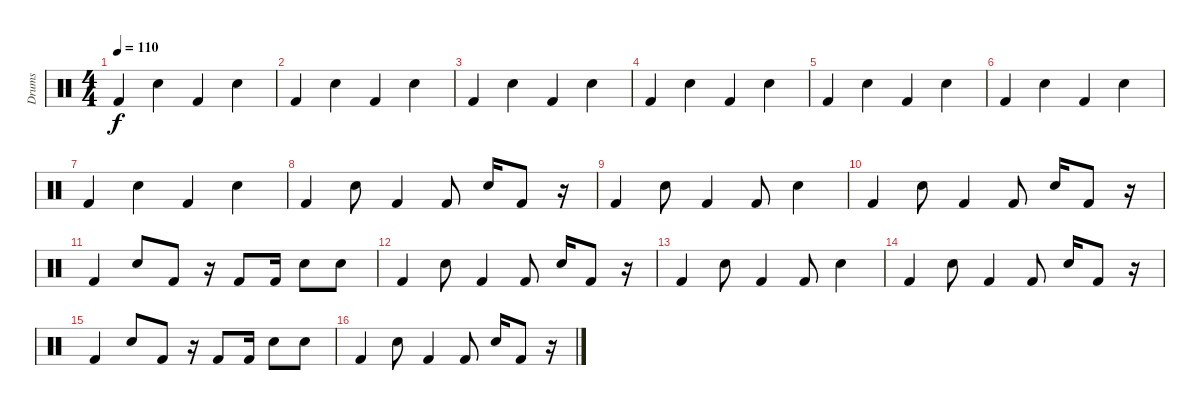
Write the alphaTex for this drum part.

\track ("Drums" "Drums") {instrument percussion}
\staff {score}
\articulation defaults
\ts (4 4)
\tempo 110
\clef neutral
\ks c "Kick (hit) 2".4{dy f} "Electric Snare (hit)".4 "Kick (hit) 2".4 "Electric Snare (hit)".4
|
"Kick (hit) 2".4 "Electric Snare (hit)".4 "Kick (hit) 2".4 "Electric Snare (hit)".4 |
"Kick (hit) 2".4 "Electric Snare (hit)".4 "Kick (hit) 2".4 "Electric Snare (hit)".4 |
"Kick (hit) 2".4 "Electric Snare (hit)".4 "Kick (hit) 2".4 "Electric Snare (hit)".4 |
"Kick (hit) 2".4 "Electric Snare (hit)".4 "Kick (hit) 2".4 "Electric Snare (hit)".4 |
"Kick (hit) 2".4 "Electric Snare (hit)".4 "Kick (hit) 2".4 "Electric Snare (hit)".4 |
"Kick (hit) 2".4 "Electric Snare (hit)".4 "Kick (hit) 2".4 "Electric Snare (hit)".4 |
"Kick (hit) 2".4 "Electric Snare (hit)".8 "Kick (hit) 2".4 "Kick (hit) 2".8 "Electric Snare (hit)".16 "Kick (hit) 2".8 r.16 |
"Kick (hit) 2".4 "Electric Snare (hit)".8 "Kick (hit) 2".4 "Kick (hit) 2".8 "Electric Snare (hit)".4 |
"Kick (hit) 2".4 "Electric Snare (hit)".8 "Kick (hit) 2".4 "Kick (hit) 2".8 "Electric Snare (hit)".16 "Kick (hit) 2".8 r.16 |
"Kick (hit) 2".4 "Electric Snare (hit)".8 "Kick (hit) 2".8 r.16 "Kick (hit) 2".8 "Kick (hit) 2".16 "Electric Snare (hit)".8 "Electric Snare (hit)".8 |
"Kick (hit) 2".4 "Electric Snare (hit)".8 "Kick (hit) 2".4 "Kick (hit) 2".8 "Electric Snare (hit)".16 "Kick (hit) 2".8 r.16 |
"Kick (hit) 2".4 "Electric Snare (hit)".8 "Kick (hit) 2".4 "Kick (hit) 2".8 "Electric Snare (hit)".4 |
"Kick (hit) 2".4 "Electric Snare (hit)".8 "Kick (hit) 2".4 "Kick (hit) 2".8 "Electric Snare (hit)".16 "Kick (hit) 2".8 r.16 |
"Kick (hit) 2".4 "Electric Snare (hit)".8 "Kick (hit) 2".8 r.16 "Kick (hit) 2".8 "Kick (hit) 2".16 "Electric Snare (hit)".8 "Electric Snare (hit)".8 |
"Kick (hit) 2".4 "Electric Snare (hit)".8 "Kick (hit) 2".4 "Kick (hit) 2".8 "Electric Snare (hit)".16 "Kick (hit) 2".8 r.16
